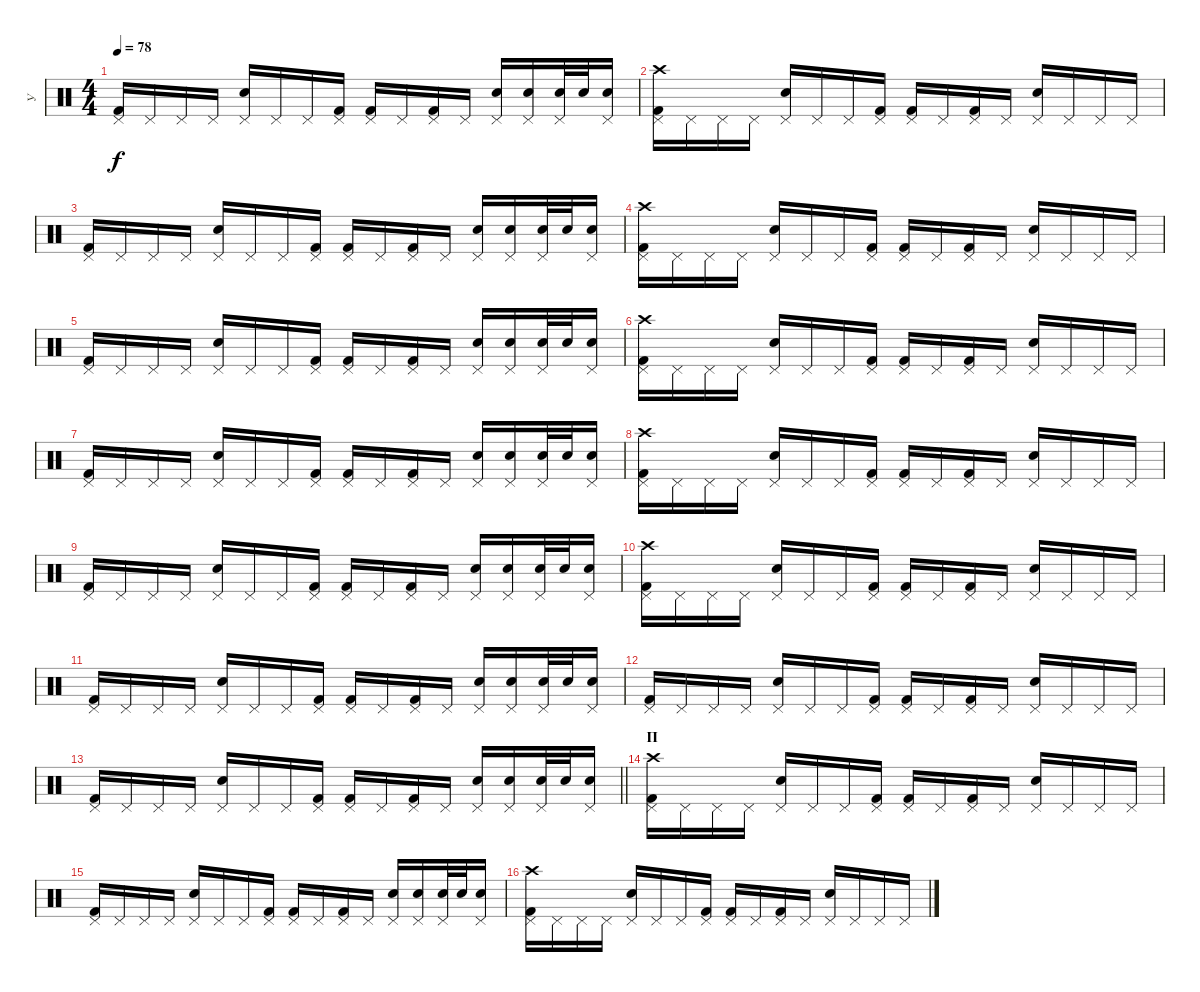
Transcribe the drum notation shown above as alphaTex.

\track ("У" "У") {instrument percussion}
\staff {score}
\articulation defaults
\ts (4 4)
\tempo 78
\clef neutral
\ks c
("Kick (hit) 2" "Pedal Hi-Hat (hit)").16{dy f} "Pedal Hi-Hat (hit)".16 "Pedal Hi-Hat (hit)".16 "Pedal Hi-Hat (hit)".16 ("Electric Snare (hit)" "Pedal Hi-Hat (hit)").16 "Pedal Hi-Hat (hit)".16 "Pedal Hi-Hat (hit)".16 ("Kick (hit) 2" "Pedal Hi-Hat (hit)").16 ("Kick (hit) 2" "Pedal Hi-Hat (hit)").16 "Pedal Hi-Hat (hit)".16 ("Kick (hit) 2" "Pedal Hi-Hat (hit)").16 "Pedal Hi-Hat (hit)".16 ("Electric Snare (hit)" "Pedal Hi-Hat (hit)").16 ("Electric Snare (hit)" "Pedal Hi-Hat (hit)").16 ("Electric Snare (hit)" "Pedal Hi-Hat (hit)").32 "Electric Snare (hit)".32 ("Electric Snare (hit)" "Pedal Hi-Hat (hit)").16 |
("Crash high (hit)" "Kick (hit) 2" "Pedal Hi-Hat (hit)").16 "Pedal Hi-Hat (hit)".16 "Pedal Hi-Hat (hit)".16 "Pedal Hi-Hat (hit)".16 ("Electric Snare (hit)" "Pedal Hi-Hat (hit)").16 "Pedal Hi-Hat (hit)".16 "Pedal Hi-Hat (hit)".16 ("Kick (hit) 2" "Pedal Hi-Hat (hit)").16 ("Kick (hit) 2" "Pedal Hi-Hat (hit)").16 "Pedal Hi-Hat (hit)".16 ("Kick (hit) 2" "Pedal Hi-Hat (hit)").16 "Pedal Hi-Hat (hit)".16 ("Electric Snare (hit)" "Pedal Hi-Hat (hit)").16 "Pedal Hi-Hat (hit)".16 "Pedal Hi-Hat (hit)".16 "Pedal Hi-Hat (hit)".16 |
("Kick (hit) 2" "Pedal Hi-Hat (hit)").16 "Pedal Hi-Hat (hit)".16 "Pedal Hi-Hat (hit)".16 "Pedal Hi-Hat (hit)".16 ("Electric Snare (hit)" "Pedal Hi-Hat (hit)").16 "Pedal Hi-Hat (hit)".16 "Pedal Hi-Hat (hit)".16 ("Kick (hit) 2" "Pedal Hi-Hat (hit)").16 ("Kick (hit) 2" "Pedal Hi-Hat (hit)").16 "Pedal Hi-Hat (hit)".16 ("Kick (hit) 2" "Pedal Hi-Hat (hit)").16 "Pedal Hi-Hat (hit)".16 ("Electric Snare (hit)" "Pedal Hi-Hat (hit)").16 ("Electric Snare (hit)" "Pedal Hi-Hat (hit)").16 ("Electric Snare (hit)" "Pedal Hi-Hat (hit)").32 "Electric Snare (hit)".32 ("Electric Snare (hit)" "Pedal Hi-Hat (hit)").16 |
("Crash high (hit)" "Kick (hit) 2" "Pedal Hi-Hat (hit)").16 "Pedal Hi-Hat (hit)".16 "Pedal Hi-Hat (hit)".16 "Pedal Hi-Hat (hit)".16 ("Electric Snare (hit)" "Pedal Hi-Hat (hit)").16 "Pedal Hi-Hat (hit)".16 "Pedal Hi-Hat (hit)".16 ("Kick (hit) 2" "Pedal Hi-Hat (hit)").16 ("Kick (hit) 2" "Pedal Hi-Hat (hit)").16 "Pedal Hi-Hat (hit)".16 ("Kick (hit) 2" "Pedal Hi-Hat (hit)").16 "Pedal Hi-Hat (hit)".16 ("Electric Snare (hit)" "Pedal Hi-Hat (hit)").16 "Pedal Hi-Hat (hit)".16 "Pedal Hi-Hat (hit)".16 "Pedal Hi-Hat (hit)".16 |
("Kick (hit) 2" "Pedal Hi-Hat (hit)").16 "Pedal Hi-Hat (hit)".16 "Pedal Hi-Hat (hit)".16 "Pedal Hi-Hat (hit)".16 ("Electric Snare (hit)" "Pedal Hi-Hat (hit)").16 "Pedal Hi-Hat (hit)".16 "Pedal Hi-Hat (hit)".16 ("Kick (hit) 2" "Pedal Hi-Hat (hit)").16 ("Kick (hit) 2" "Pedal Hi-Hat (hit)").16 "Pedal Hi-Hat (hit)".16 ("Kick (hit) 2" "Pedal Hi-Hat (hit)").16 "Pedal Hi-Hat (hit)".16 ("Electric Snare (hit)" "Pedal Hi-Hat (hit)").16 ("Electric Snare (hit)" "Pedal Hi-Hat (hit)").16 ("Electric Snare (hit)" "Pedal Hi-Hat (hit)").32 "Electric Snare (hit)".32 ("Electric Snare (hit)" "Pedal Hi-Hat (hit)").16 |
("Crash high (hit)" "Kick (hit) 2" "Pedal Hi-Hat (hit)").16 "Pedal Hi-Hat (hit)".16 "Pedal Hi-Hat (hit)".16 "Pedal Hi-Hat (hit)".16 ("Electric Snare (hit)" "Pedal Hi-Hat (hit)").16 "Pedal Hi-Hat (hit)".16 "Pedal Hi-Hat (hit)".16 ("Kick (hit) 2" "Pedal Hi-Hat (hit)").16 ("Kick (hit) 2" "Pedal Hi-Hat (hit)").16 "Pedal Hi-Hat (hit)".16 ("Kick (hit) 2" "Pedal Hi-Hat (hit)").16 "Pedal Hi-Hat (hit)".16 ("Electric Snare (hit)" "Pedal Hi-Hat (hit)").16 "Pedal Hi-Hat (hit)".16 "Pedal Hi-Hat (hit)".16 "Pedal Hi-Hat (hit)".16 |
("Kick (hit) 2" "Pedal Hi-Hat (hit)").16 "Pedal Hi-Hat (hit)".16 "Pedal Hi-Hat (hit)".16 "Pedal Hi-Hat (hit)".16 ("Electric Snare (hit)" "Pedal Hi-Hat (hit)").16 "Pedal Hi-Hat (hit)".16 "Pedal Hi-Hat (hit)".16 ("Kick (hit) 2" "Pedal Hi-Hat (hit)").16 ("Kick (hit) 2" "Pedal Hi-Hat (hit)").16 "Pedal Hi-Hat (hit)".16 ("Kick (hit) 2" "Pedal Hi-Hat (hit)").16 "Pedal Hi-Hat (hit)".16 ("Electric Snare (hit)" "Pedal Hi-Hat (hit)").16 ("Electric Snare (hit)" "Pedal Hi-Hat (hit)").16 ("Electric Snare (hit)" "Pedal Hi-Hat (hit)").32 "Electric Snare (hit)".32 ("Electric Snare (hit)" "Pedal Hi-Hat (hit)").16 |
("Crash high (hit)" "Kick (hit) 2" "Pedal Hi-Hat (hit)").16 "Pedal Hi-Hat (hit)".16 "Pedal Hi-Hat (hit)".16 "Pedal Hi-Hat (hit)".16 ("Electric Snare (hit)" "Pedal Hi-Hat (hit)").16 "Pedal Hi-Hat (hit)".16 "Pedal Hi-Hat (hit)".16 ("Kick (hit) 2" "Pedal Hi-Hat (hit)").16 ("Kick (hit) 2" "Pedal Hi-Hat (hit)").16 "Pedal Hi-Hat (hit)".16 ("Kick (hit) 2" "Pedal Hi-Hat (hit)").16 "Pedal Hi-Hat (hit)".16 ("Electric Snare (hit)" "Pedal Hi-Hat (hit)").16 "Pedal Hi-Hat (hit)".16 "Pedal Hi-Hat (hit)".16 "Pedal Hi-Hat (hit)".16 |
("Kick (hit) 2" "Pedal Hi-Hat (hit)").16 "Pedal Hi-Hat (hit)".16 "Pedal Hi-Hat (hit)".16 "Pedal Hi-Hat (hit)".16 ("Electric Snare (hit)" "Pedal Hi-Hat (hit)").16 "Pedal Hi-Hat (hit)".16 "Pedal Hi-Hat (hit)".16 ("Kick (hit) 2" "Pedal Hi-Hat (hit)").16 ("Kick (hit) 2" "Pedal Hi-Hat (hit)").16 "Pedal Hi-Hat (hit)".16 ("Kick (hit) 2" "Pedal Hi-Hat (hit)").16 "Pedal Hi-Hat (hit)".16 ("Electric Snare (hit)" "Pedal Hi-Hat (hit)").16 ("Electric Snare (hit)" "Pedal Hi-Hat (hit)").16 ("Electric Snare (hit)" "Pedal Hi-Hat (hit)").32 "Electric Snare (hit)".32 ("Electric Snare (hit)" "Pedal Hi-Hat (hit)").16 |
("Crash high (hit)" "Kick (hit) 2" "Pedal Hi-Hat (hit)").16 "Pedal Hi-Hat (hit)".16 "Pedal Hi-Hat (hit)".16 "Pedal Hi-Hat (hit)".16 ("Electric Snare (hit)" "Pedal Hi-Hat (hit)").16 "Pedal Hi-Hat (hit)".16 "Pedal Hi-Hat (hit)".16 ("Kick (hit) 2" "Pedal Hi-Hat (hit)").16 ("Kick (hit) 2" "Pedal Hi-Hat (hit)").16 "Pedal Hi-Hat (hit)".16 ("Kick (hit) 2" "Pedal Hi-Hat (hit)").16 "Pedal Hi-Hat (hit)".16 ("Electric Snare (hit)" "Pedal Hi-Hat (hit)").16 "Pedal Hi-Hat (hit)".16 "Pedal Hi-Hat (hit)".16 "Pedal Hi-Hat (hit)".16 |
("Kick (hit) 2" "Pedal Hi-Hat (hit)").16 "Pedal Hi-Hat (hit)".16 "Pedal Hi-Hat (hit)".16 "Pedal Hi-Hat (hit)".16 ("Electric Snare (hit)" "Pedal Hi-Hat (hit)").16 "Pedal Hi-Hat (hit)".16 "Pedal Hi-Hat (hit)".16 ("Kick (hit) 2" "Pedal Hi-Hat (hit)").16 ("Kick (hit) 2" "Pedal Hi-Hat (hit)").16 "Pedal Hi-Hat (hit)".16 ("Kick (hit) 2" "Pedal Hi-Hat (hit)").16 "Pedal Hi-Hat (hit)".16 ("Electric Snare (hit)" "Pedal Hi-Hat (hit)").16 ("Electric Snare (hit)" "Pedal Hi-Hat (hit)").16 ("Electric Snare (hit)" "Pedal Hi-Hat (hit)").32 "Electric Snare (hit)".32 ("Electric Snare (hit)" "Pedal Hi-Hat (hit)").16 |
("Kick (hit) 2" "Pedal Hi-Hat (hit)").16 "Pedal Hi-Hat (hit)".16 "Pedal Hi-Hat (hit)".16 "Pedal Hi-Hat (hit)".16 ("Electric Snare (hit)" "Pedal Hi-Hat (hit)").16 "Pedal Hi-Hat (hit)".16 "Pedal Hi-Hat (hit)".16 ("Kick (hit) 2" "Pedal Hi-Hat (hit)").16 ("Kick (hit) 2" "Pedal Hi-Hat (hit)").16 "Pedal Hi-Hat (hit)".16 ("Kick (hit) 2" "Pedal Hi-Hat (hit)").16 "Pedal Hi-Hat (hit)".16 ("Electric Snare (hit)" "Pedal Hi-Hat (hit)").16 "Pedal Hi-Hat (hit)".16 "Pedal Hi-Hat (hit)".16 "Pedal Hi-Hat (hit)".16 |
\barLineRight lightlight
("Kick (hit) 2" "Pedal Hi-Hat (hit)").16 "Pedal Hi-Hat (hit)".16 "Pedal Hi-Hat (hit)".16 "Pedal Hi-Hat (hit)".16 ("Electric Snare (hit)" "Pedal Hi-Hat (hit)").16 "Pedal Hi-Hat (hit)".16 "Pedal Hi-Hat (hit)".16 ("Kick (hit) 2" "Pedal Hi-Hat (hit)").16 ("Kick (hit) 2" "Pedal Hi-Hat (hit)").16 "Pedal Hi-Hat (hit)".16 ("Kick (hit) 2" "Pedal Hi-Hat (hit)").16 "Pedal Hi-Hat (hit)".16 ("Electric Snare (hit)" "Pedal Hi-Hat (hit)").16 ("Electric Snare (hit)" "Pedal Hi-Hat (hit)").16 ("Electric Snare (hit)" "Pedal Hi-Hat (hit)").32 "Electric Snare (hit)".32 ("Electric Snare (hit)" "Pedal Hi-Hat (hit)").16 |
\section ("" "П")
("Crash high (hit)" "Kick (hit) 2" "Pedal Hi-Hat (hit)").16 "Pedal Hi-Hat (hit)".16 "Pedal Hi-Hat (hit)".16 "Pedal Hi-Hat (hit)".16 ("Electric Snare (hit)" "Pedal Hi-Hat (hit)").16 "Pedal Hi-Hat (hit)".16 "Pedal Hi-Hat (hit)".16 ("Kick (hit) 2" "Pedal Hi-Hat (hit)").16 ("Kick (hit) 2" "Pedal Hi-Hat (hit)").16 "Pedal Hi-Hat (hit)".16 ("Kick (hit) 2" "Pedal Hi-Hat (hit)").16 "Pedal Hi-Hat (hit)".16 ("Electric Snare (hit)" "Pedal Hi-Hat (hit)").16 "Pedal Hi-Hat (hit)".16 "Pedal Hi-Hat (hit)".16 "Pedal Hi-Hat (hit)".16 |
("Kick (hit) 2" "Pedal Hi-Hat (hit)").16 "Pedal Hi-Hat (hit)".16 "Pedal Hi-Hat (hit)".16 "Pedal Hi-Hat (hit)".16 ("Electric Snare (hit)" "Pedal Hi-Hat (hit)").16 "Pedal Hi-Hat (hit)".16 "Pedal Hi-Hat (hit)".16 ("Kick (hit) 2" "Pedal Hi-Hat (hit)").16 ("Kick (hit) 2" "Pedal Hi-Hat (hit)").16 "Pedal Hi-Hat (hit)".16 ("Kick (hit) 2" "Pedal Hi-Hat (hit)").16 "Pedal Hi-Hat (hit)".16 ("Electric Snare (hit)" "Pedal Hi-Hat (hit)").16 ("Electric Snare (hit)" "Pedal Hi-Hat (hit)").16 ("Electric Snare (hit)" "Pedal Hi-Hat (hit)").32 "Electric Snare (hit)".32 ("Electric Snare (hit)" "Pedal Hi-Hat (hit)").16 |
("Crash high (hit)" "Kick (hit) 2" "Pedal Hi-Hat (hit)").16 "Pedal Hi-Hat (hit)".16 "Pedal Hi-Hat (hit)".16 "Pedal Hi-Hat (hit)".16 ("Electric Snare (hit)" "Pedal Hi-Hat (hit)").16 "Pedal Hi-Hat (hit)".16 "Pedal Hi-Hat (hit)".16 ("Kick (hit) 2" "Pedal Hi-Hat (hit)").16 ("Kick (hit) 2" "Pedal Hi-Hat (hit)").16 "Pedal Hi-Hat (hit)".16 ("Kick (hit) 2" "Pedal Hi-Hat (hit)").16 "Pedal Hi-Hat (hit)".16 ("Electric Snare (hit)" "Pedal Hi-Hat (hit)").16 "Pedal Hi-Hat (hit)".16 "Pedal Hi-Hat (hit)".16 "Pedal Hi-Hat (hit)".16
